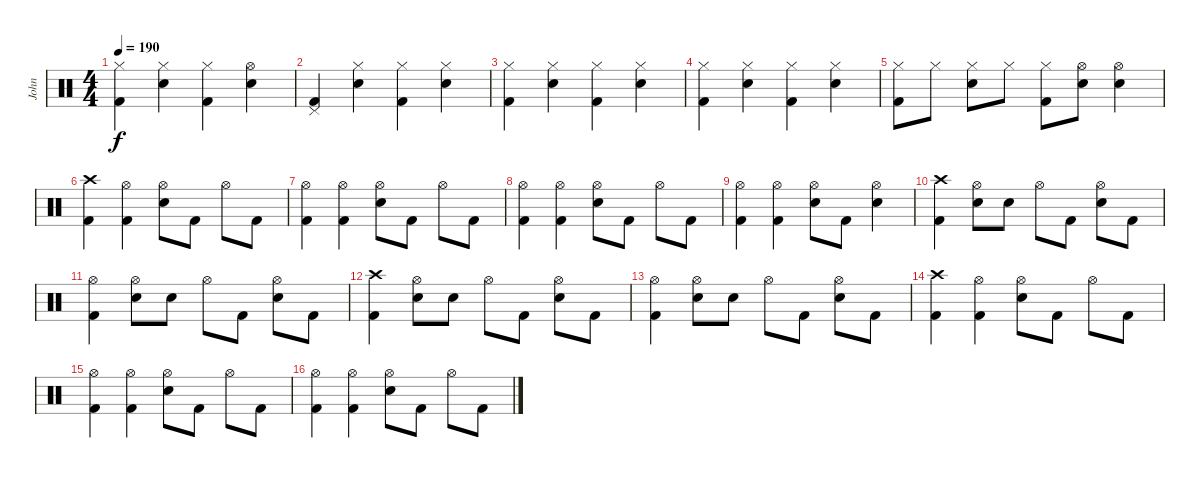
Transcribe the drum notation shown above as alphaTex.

\track ("John" "John") {instrument percussion}
\staff {score}
\articulation defaults
\ts (4 4)
\tempo 190
\clef neutral
\ks c
("Kick (hit) 2" "Hi-Hat (closed)").4{dy f} ("Snare (hit) 2" "Hi-Hat (closed)").4 ("Kick (hit) 2" "Hi-Hat (closed)").4 ("Snare (hit) 2" "Hi-Hat (open)").4 |
("Kick (hit) 2" "Pedal Hi-Hat (hit)").4 ("Snare (hit) 2" "Hi-Hat (closed)").4 ("Kick (hit) 2" "Hi-Hat (closed)").4 ("Snare (hit) 2" "Hi-Hat (closed)").4 |
("Kick (hit) 2" "Hi-Hat (closed)").4 ("Snare (hit) 2" "Hi-Hat (closed)").4 ("Kick (hit) 2" "Hi-Hat (closed)").4 ("Snare (hit) 2" "Hi-Hat (closed)").4 |
("Kick (hit) 2" "Hi-Hat (closed)").4 ("Snare (hit) 2" "Hi-Hat (closed)").4 ("Kick (hit) 2" "Hi-Hat (closed)").4 ("Snare (hit) 2" "Hi-Hat (closed)").4 |
("Kick (hit) 2" "Hi-Hat (closed)").8 "Hi-Hat (closed)".8 ("Snare (hit) 2" "Hi-Hat (closed)").8 "Hi-Hat (closed)".8 ("Kick (hit) 2" "Hi-Hat (closed)").8 ("Snare (hit) 2" "Hi-Hat (open)").8 ("Snare (hit) 2" "Hi-Hat (open)").4 |
("Kick (hit) 2" "Crash high (hit)").4 ("Kick (hit) 2" "Hi-Hat (open)").4 ("Snare (hit) 2" "Hi-Hat (open)").8 "Kick (hit) 2".8 "Hi-Hat (open)".8 "Kick (hit) 2".8 |
("Kick (hit) 2" "Hi-Hat (open)").4 ("Kick (hit) 2" "Hi-Hat (open)").4 ("Snare (hit) 2" "Hi-Hat (open)").8 "Kick (hit) 2".8 "Hi-Hat (open)".8 "Kick (hit) 2".8 |
("Kick (hit) 2" "Hi-Hat (open)").4 ("Kick (hit) 2" "Hi-Hat (open)").4 ("Snare (hit) 2" "Hi-Hat (open)").8 "Kick (hit) 2".8 "Hi-Hat (open)".8 "Kick (hit) 2".8 |
("Kick (hit) 2" "Hi-Hat (open)").4 ("Kick (hit) 2" "Hi-Hat (open)").4 ("Snare (hit) 2" "Hi-Hat (open)").8 "Kick (hit) 2".8 ("Snare (hit) 2" "Hi-Hat (open)").4 |
("Kick (hit) 2" "Crash high (hit)").4 ("Snare (hit) 2" "Hi-Hat (open)").8 "Snare (hit) 2".8 "Hi-Hat (open)".8 "Kick (hit) 2".8 ("Snare (hit) 2" "Hi-Hat (open)").8 "Kick (hit) 2".8 |
("Kick (hit) 2" "Hi-Hat (open)").4 ("Snare (hit) 2" "Hi-Hat (open)").8 "Snare (hit) 2".8 "Hi-Hat (open)".8 "Kick (hit) 2".8 ("Snare (hit) 2" "Hi-Hat (open)").8 "Kick (hit) 2".8 |
("Kick (hit) 2" "Crash high (hit)").4 ("Snare (hit) 2" "Hi-Hat (open)").8 "Snare (hit) 2".8 "Hi-Hat (open)".8 "Kick (hit) 2".8 ("Snare (hit) 2" "Hi-Hat (open)").8 "Kick (hit) 2".8 |
("Kick (hit) 2" "Hi-Hat (open)").4 ("Snare (hit) 2" "Hi-Hat (open)").8 "Snare (hit) 2".8 "Hi-Hat (open)".8 "Kick (hit) 2".8 ("Snare (hit) 2" "Hi-Hat (open)").8 "Kick (hit) 2".8 |
("Kick (hit) 2" "Crash high (hit)").4 ("Kick (hit) 2" "Hi-Hat (open)").4 ("Snare (hit) 2" "Hi-Hat (open)").8 "Kick (hit) 2".8 "Hi-Hat (open)".8 "Kick (hit) 2".8 |
("Kick (hit) 2" "Hi-Hat (open)").4 ("Kick (hit) 2" "Hi-Hat (open)").4 ("Snare (hit) 2" "Hi-Hat (open)").8 "Kick (hit) 2".8 "Hi-Hat (open)".8 "Kick (hit) 2".8 |
("Kick (hit) 2" "Hi-Hat (open)").4 ("Kick (hit) 2" "Hi-Hat (open)").4 ("Snare (hit) 2" "Hi-Hat (open)").8 "Kick (hit) 2".8 "Hi-Hat (open)".8 "Kick (hit) 2".8
